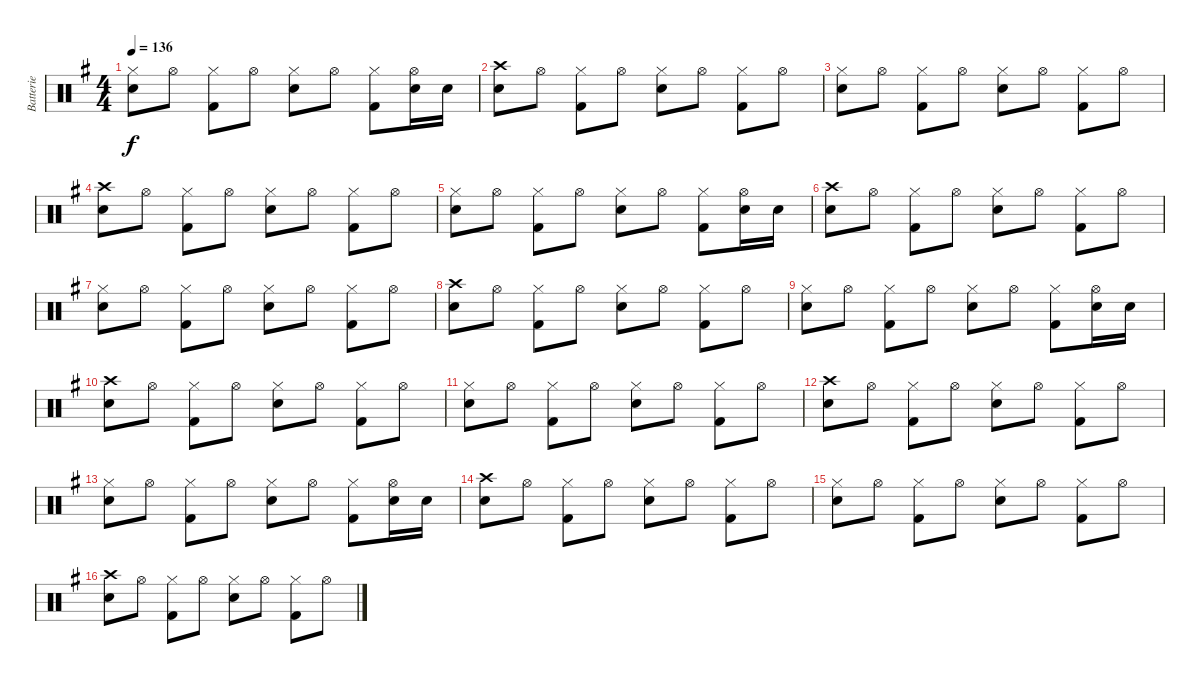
\track ("Batterie" "Batterie") {instrument percussion}
\staff {score}
\articulation defaults
\ts (4 4)
\tempo 136
\clef neutral
\ks g
("Hi-Hat (closed)" "Snare (hit) 2").8{dy f} "Hi-Hat (open)".8 ("Hi-Hat (closed)" "Kick (hit) 2").8 "Hi-Hat (open)".8 ("Hi-Hat (closed)" "Snare (hit) 2").8 "Hi-Hat (open)".8 ("Hi-Hat (closed)" "Kick (hit) 2").8 ("Hi-Hat (open)" "Snare (hit) 2").16 "Snare (hit) 2".16 |
("Crash high (hit)" "Snare (hit) 2").8 "Hi-Hat (open)".8 ("Hi-Hat (closed)" "Kick (hit) 2").8 "Hi-Hat (open)".8 ("Hi-Hat (closed)" "Snare (hit) 2").8 "Hi-Hat (open)".8 ("Hi-Hat (closed)" "Kick (hit) 2").8 "Hi-Hat (open)".8 |
("Hi-Hat (closed)" "Snare (hit) 2").8 "Hi-Hat (open)".8 ("Hi-Hat (closed)" "Kick (hit) 2").8 "Hi-Hat (open)".8 ("Hi-Hat (closed)" "Snare (hit) 2").8 "Hi-Hat (open)".8 ("Hi-Hat (closed)" "Kick (hit) 2").8 "Hi-Hat (open)".8 |
("Crash high (hit)" "Snare (hit) 2").8 "Hi-Hat (open)".8 ("Hi-Hat (closed)" "Kick (hit) 2").8 "Hi-Hat (open)".8 ("Hi-Hat (closed)" "Snare (hit) 2").8 "Hi-Hat (open)".8 ("Hi-Hat (closed)" "Kick (hit) 2").8 "Hi-Hat (open)".8 |
("Hi-Hat (closed)" "Snare (hit) 2").8 "Hi-Hat (open)".8 ("Hi-Hat (closed)" "Kick (hit) 2").8 "Hi-Hat (open)".8 ("Hi-Hat (closed)" "Snare (hit) 2").8 "Hi-Hat (open)".8 ("Hi-Hat (closed)" "Kick (hit) 2").8 ("Hi-Hat (open)" "Snare (hit) 2").16 "Snare (hit) 2".16 |
("Crash high (hit)" "Snare (hit) 2").8 "Hi-Hat (open)".8 ("Hi-Hat (closed)" "Kick (hit) 2").8 "Hi-Hat (open)".8 ("Hi-Hat (closed)" "Snare (hit) 2").8 "Hi-Hat (open)".8 ("Hi-Hat (closed)" "Kick (hit) 2").8 "Hi-Hat (open)".8 |
("Hi-Hat (closed)" "Snare (hit) 2").8 "Hi-Hat (open)".8 ("Hi-Hat (closed)" "Kick (hit) 2").8 "Hi-Hat (open)".8 ("Hi-Hat (closed)" "Snare (hit) 2").8 "Hi-Hat (open)".8 ("Hi-Hat (closed)" "Kick (hit) 2").8 "Hi-Hat (open)".8 |
("Crash high (hit)" "Snare (hit) 2").8 "Hi-Hat (open)".8 ("Hi-Hat (closed)" "Kick (hit) 2").8 "Hi-Hat (open)".8 ("Hi-Hat (closed)" "Snare (hit) 2").8 "Hi-Hat (open)".8 ("Hi-Hat (closed)" "Kick (hit) 2").8 "Hi-Hat (open)".8 |
("Hi-Hat (closed)" "Snare (hit) 2").8 "Hi-Hat (open)".8 ("Hi-Hat (closed)" "Kick (hit) 2").8 "Hi-Hat (open)".8 ("Hi-Hat (closed)" "Snare (hit) 2").8 "Hi-Hat (open)".8 ("Hi-Hat (closed)" "Kick (hit) 2").8 ("Hi-Hat (open)" "Snare (hit) 2").16 "Snare (hit) 2".16 |
("Crash high (hit)" "Snare (hit) 2").8 "Hi-Hat (open)".8 ("Hi-Hat (closed)" "Kick (hit) 2").8 "Hi-Hat (open)".8 ("Hi-Hat (closed)" "Snare (hit) 2").8 "Hi-Hat (open)".8 ("Hi-Hat (closed)" "Kick (hit) 2").8 "Hi-Hat (open)".8 |
("Hi-Hat (closed)" "Snare (hit) 2").8 "Hi-Hat (open)".8 ("Hi-Hat (closed)" "Kick (hit) 2").8 "Hi-Hat (open)".8 ("Hi-Hat (closed)" "Snare (hit) 2").8 "Hi-Hat (open)".8 ("Hi-Hat (closed)" "Kick (hit) 2").8 "Hi-Hat (open)".8 |
("Crash high (hit)" "Snare (hit) 2").8 "Hi-Hat (open)".8 ("Hi-Hat (closed)" "Kick (hit) 2").8 "Hi-Hat (open)".8 ("Hi-Hat (closed)" "Snare (hit) 2").8 "Hi-Hat (open)".8 ("Hi-Hat (closed)" "Kick (hit) 2").8 "Hi-Hat (open)".8 |
("Hi-Hat (closed)" "Snare (hit) 2").8 "Hi-Hat (open)".8 ("Hi-Hat (closed)" "Kick (hit) 2").8 "Hi-Hat (open)".8 ("Hi-Hat (closed)" "Snare (hit) 2").8 "Hi-Hat (open)".8 ("Hi-Hat (closed)" "Kick (hit) 2").8 ("Hi-Hat (open)" "Snare (hit) 2").16 "Snare (hit) 2".16 |
("Crash high (hit)" "Snare (hit) 2").8 "Hi-Hat (open)".8 ("Hi-Hat (closed)" "Kick (hit) 2").8 "Hi-Hat (open)".8 ("Hi-Hat (closed)" "Snare (hit) 2").8 "Hi-Hat (open)".8 ("Hi-Hat (closed)" "Kick (hit) 2").8 "Hi-Hat (open)".8 |
("Hi-Hat (closed)" "Snare (hit) 2").8 "Hi-Hat (open)".8 ("Hi-Hat (closed)" "Kick (hit) 2").8 "Hi-Hat (open)".8 ("Hi-Hat (closed)" "Snare (hit) 2").8 "Hi-Hat (open)".8 ("Hi-Hat (closed)" "Kick (hit) 2").8 "Hi-Hat (open)".8 |
("Crash high (hit)" "Snare (hit) 2").8 "Hi-Hat (open)".8 ("Hi-Hat (closed)" "Kick (hit) 2").8 "Hi-Hat (open)".8 ("Hi-Hat (closed)" "Snare (hit) 2").8 "Hi-Hat (open)".8 ("Hi-Hat (closed)" "Kick (hit) 2").8 "Hi-Hat (open)".8
